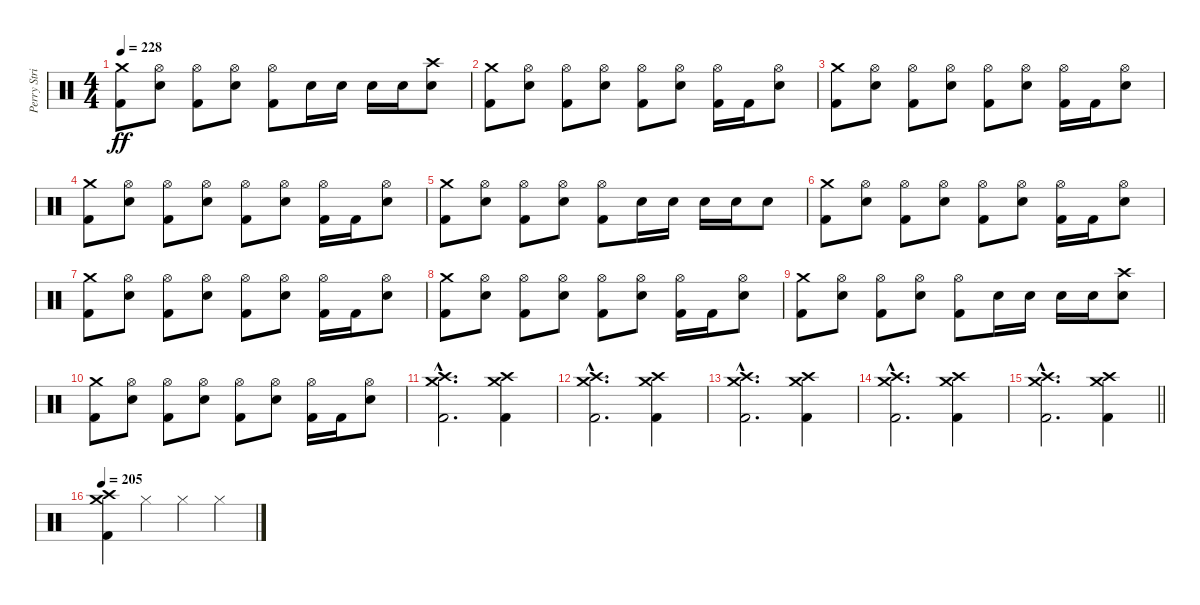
\track ("Perry Strickland" "Perry Stri") {instrument percussion}
\staff {score}
\articulation defaults
\ts (4 4)
\tempo 228
\clef neutral
\ks c
("Crash medium (hit)" "Kick (hit) 2").8{dy ff} ("Hi-Hat (open)" "Snare (hit) 2").8 ("Hi-Hat (open)" "Kick (hit) 2").8 ("Hi-Hat (open)" "Snare (hit) 2").8 ("Hi-Hat (open)" "Kick (hit) 2").8 "Snare (hit) 2".16 "Snare (hit) 2".16 "Snare (hit) 2".16 "Snare (hit) 2".16 ("Crash high (hit)" "Snare (hit) 2").8 |
("Crash medium (hit)" "Kick (hit) 2").8 ("Hi-Hat (open)" "Snare (hit) 2").8 ("Hi-Hat (open)" "Kick (hit) 2").8 ("Hi-Hat (open)" "Snare (hit) 2").8 ("Hi-Hat (open)" "Kick (hit) 2").8 ("Hi-Hat (open)" "Snare (hit) 2").8 ("Hi-Hat (open)" "Kick (hit) 2").16 "Kick (hit) 2".16 ("Hi-Hat (open)" "Snare (hit) 2").8 |
("Crash medium (hit)" "Kick (hit) 2").8 ("Hi-Hat (open)" "Snare (hit) 2").8 ("Hi-Hat (open)" "Kick (hit) 2").8 ("Hi-Hat (open)" "Snare (hit) 2").8 ("Hi-Hat (open)" "Kick (hit) 2").8 ("Hi-Hat (open)" "Snare (hit) 2").8 ("Hi-Hat (open)" "Kick (hit) 2").16 "Kick (hit) 2".16 ("Hi-Hat (open)" "Snare (hit) 2").8 |
("Crash medium (hit)" "Kick (hit) 2").8 ("Hi-Hat (open)" "Snare (hit) 2").8 ("Hi-Hat (open)" "Kick (hit) 2").8 ("Hi-Hat (open)" "Snare (hit) 2").8 ("Hi-Hat (open)" "Kick (hit) 2").8 ("Hi-Hat (open)" "Snare (hit) 2").8 ("Hi-Hat (open)" "Kick (hit) 2").16 "Kick (hit) 2".16 ("Hi-Hat (open)" "Snare (hit) 2").8 |
("Crash medium (hit)" "Kick (hit) 2").8 ("Hi-Hat (open)" "Snare (hit) 2").8 ("Hi-Hat (open)" "Kick (hit) 2").8 ("Hi-Hat (open)" "Snare (hit) 2").8 ("Hi-Hat (open)" "Kick (hit) 2").8 "Snare (hit) 2".16 "Snare (hit) 2".16 "Snare (hit) 2".16 "Snare (hit) 2".16 "Snare (hit) 2".8 |
("Crash medium (hit)" "Kick (hit) 2").8 ("Hi-Hat (open)" "Snare (hit) 2").8 ("Hi-Hat (open)" "Kick (hit) 2").8 ("Hi-Hat (open)" "Snare (hit) 2").8 ("Hi-Hat (open)" "Kick (hit) 2").8 ("Hi-Hat (open)" "Snare (hit) 2").8 ("Hi-Hat (open)" "Kick (hit) 2").16 "Kick (hit) 2".16 ("Hi-Hat (open)" "Snare (hit) 2").8 |
("Crash medium (hit)" "Kick (hit) 2").8 ("Hi-Hat (open)" "Snare (hit) 2").8 ("Hi-Hat (open)" "Kick (hit) 2").8 ("Hi-Hat (open)" "Snare (hit) 2").8 ("Hi-Hat (open)" "Kick (hit) 2").8 ("Hi-Hat (open)" "Snare (hit) 2").8 ("Hi-Hat (open)" "Kick (hit) 2").16 "Kick (hit) 2".16 ("Hi-Hat (open)" "Snare (hit) 2").8 |
("Crash medium (hit)" "Kick (hit) 2").8 ("Hi-Hat (open)" "Snare (hit) 2").8 ("Hi-Hat (open)" "Kick (hit) 2").8 ("Hi-Hat (open)" "Snare (hit) 2").8 ("Hi-Hat (open)" "Kick (hit) 2").8 ("Hi-Hat (open)" "Snare (hit) 2").8 ("Hi-Hat (open)" "Kick (hit) 2").16 "Kick (hit) 2".16 ("Hi-Hat (open)" "Snare (hit) 2").8 |
("Crash medium (hit)" "Kick (hit) 2").8 ("Hi-Hat (open)" "Snare (hit) 2").8 ("Hi-Hat (open)" "Kick (hit) 2").8 ("Hi-Hat (open)" "Snare (hit) 2").8 ("Hi-Hat (open)" "Kick (hit) 2").8 "Snare (hit) 2".16 "Snare (hit) 2".16 "Snare (hit) 2".16 "Snare (hit) 2".16 ("Crash high (hit)" "Snare (hit) 2").8 |
("Crash medium (hit)" "Kick (hit) 2").8 ("Hi-Hat (open)" "Snare (hit) 2").8 ("Hi-Hat (open)" "Kick (hit) 2").8 ("Hi-Hat (open)" "Snare (hit) 2").8 ("Hi-Hat (open)" "Kick (hit) 2").8 ("Hi-Hat (open)" "Snare (hit) 2").8 ("Hi-Hat (open)" "Kick (hit) 2").16 "Kick (hit) 2".16 ("Hi-Hat (open)" "Snare (hit) 2").8 |
("Crash high (hit)"{hac} "Crash medium (hit)"{hac} "Kick (hit) 2"{hac}).2{d} ("Crash high (hit)" "Crash medium (hit)" "Kick (hit) 2").4 |
("Crash high (hit)"{hac} "Crash medium (hit)"{hac} "Kick (hit) 2"{hac}).2{d} ("Crash high (hit)" "Crash medium (hit)" "Kick (hit) 2").4 |
("Crash high (hit)"{hac} "Crash medium (hit)"{hac} "Kick (hit) 2"{hac}).2{d} ("Crash high (hit)" "Crash medium (hit)" "Kick (hit) 2").4 |
("Crash high (hit)"{hac} "Crash medium (hit)"{hac} "Kick (hit) 2"{hac}).2{d} ("Crash high (hit)" "Crash medium (hit)" "Kick (hit) 2").4 |
\barLineRight lightlight
("Crash high (hit)"{hac} "Crash medium (hit)"{hac} "Kick (hit) 2"{hac}).2{d} ("Crash high (hit)" "Crash medium (hit)" "Kick (hit) 2").4 |
\tempo 205
("Crash high (hit)" "Crash medium (hit)" "Kick (hit) 2").4 "Hi-Hat (closed)".4 "Hi-Hat (closed)".4 "Hi-Hat (closed)".4
